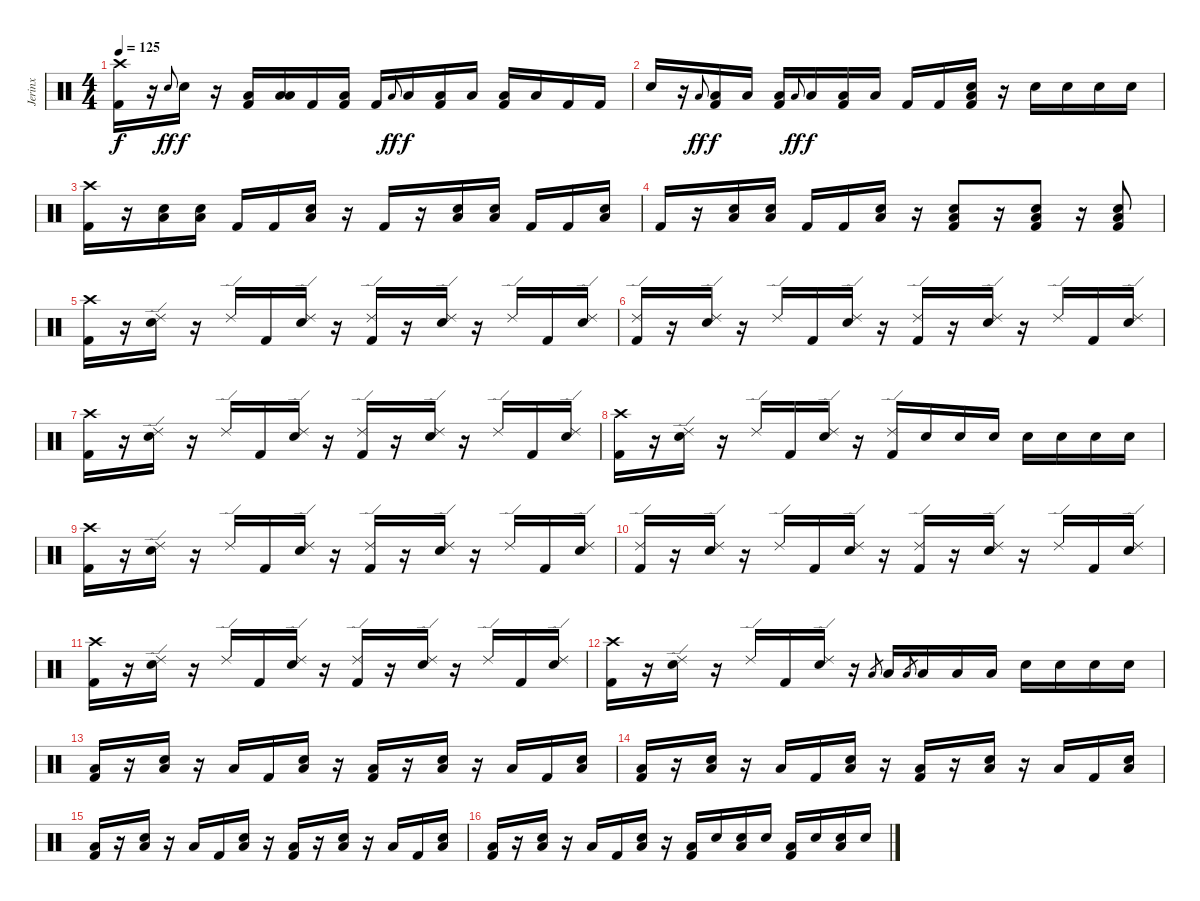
\track ("Jerinx" "Jerinx") {instrument percussion}
\staff {score}
\articulation defaults
\ts (4 4)
\tempo 125
\clef neutral
\ks c
("Kick (hit) 2" "Crash high (hit)").16{dy f} r.16 "Electric Snare (hit)".8{gr onbeat dy ff} "Electric Snare (hit)".16{dy f} r.16 ("Kick (hit) 2" "Low Floor Tom (hit)").16 ("Low Tom (hit)" "Low Floor Tom (hit)").16 "Kick (hit) 2".16 ("Kick (hit) 2" "Low Floor Tom (hit)").16 "Kick (hit) 2".16 "Low Tom (hit)".8{gr onbeat dy ff} "Low Tom (hit)".16{dy f} ("Kick (hit) 2" "Low Tom (hit)").16 "Low Tom (hit)".16 ("Kick (hit) 2" "Low Floor Tom (hit)").16 "Low Floor Tom (hit)".16 "Kick (hit) 2".16 "Kick (hit) 2".16 |
"Electric Snare (hit)".16 r.16 "Low Tom (hit)".8{gr onbeat dy ff} ("Kick (hit) 2" "Low Tom (hit)").16{dy f} "Low Tom (hit)".16 ("Kick (hit) 2" "Low Tom (hit)").16 "Low Floor Tom (hit)".8{gr onbeat dy ff} "Low Floor Tom (hit)".16{dy f} ("Kick (hit) 2" "Low Floor Tom (hit)").16 "Low Floor Tom (hit)".16 "Kick (hit) 2".16 "Kick (hit) 2".16 ("Kick (hit) 2" "Electric Snare (hit)" "Low Floor Tom (hit)").16 r.16 "Electric Snare (hit)".16 "Electric Snare (hit)".16 "Electric Snare (hit)".16 "Electric Snare (hit)".16 |
("Kick (hit) 2" "Crash high (hit)").16 r.16 ("Electric Snare (hit)" "Low Floor Tom (hit)").16 ("Electric Snare (hit)" "Low Floor Tom (hit)").16 "Kick (hit) 2".16 "Kick (hit) 2".16 ("Electric Snare (hit)" "Low Floor Tom (hit)").16 r.16 "Kick (hit) 2".16 r.16 ("Electric Snare (hit)" "Low Floor Tom (hit)").16 ("Electric Snare (hit)" "Low Floor Tom (hit)").16 "Kick (hit) 2".16 "Kick (hit) 2".16 ("Electric Snare (hit)" "Low Floor Tom (hit)").16 |
"Kick (hit) 2".16 r.16 ("Electric Snare (hit)" "Low Floor Tom (hit)").16 ("Electric Snare (hit)" "Low Floor Tom (hit)").16 "Kick (hit) 2".16 "Kick (hit) 2".16 ("Electric Snare (hit)" "Low Floor Tom (hit)").16 r.16 ("Kick (hit) 2" "Electric Snare (hit)" "Low Floor Tom (hit)").8 r.16 ("Kick (hit) 2" "Electric Snare (hit)" "Low Floor Tom (hit)").8 r.16 ("Kick (hit) 2" "Electric Snare (hit)" "Low Floor Tom (hit)").8 |
("Kick (hit) 2" "Crash high (hit)").16 r.16 ("Electric Snare (hit)" "Ride (edge) 2").16 r.16 "Ride (edge) 2".16 "Kick (hit) 2".16 ("Electric Snare (hit)" "Ride (edge) 2").16 r.16 ("Kick (hit) 2" "Ride (edge) 2").16 r.16 ("Electric Snare (hit)" "Ride (edge) 2").16 r.16 "Ride (edge) 2".16 "Kick (hit) 2".16 ("Electric Snare (hit)" "Ride (edge) 2").16 |
("Kick (hit) 2" "Ride (edge) 2").16 r.16 ("Electric Snare (hit)" "Ride (edge) 2").16 r.16 "Ride (edge) 2".16 "Kick (hit) 2".16 ("Electric Snare (hit)" "Ride (edge) 2").16 r.16 ("Kick (hit) 2" "Ride (edge) 2").16 r.16 ("Electric Snare (hit)" "Ride (edge) 2").16 r.16 "Ride (edge) 2".16 "Kick (hit) 2".16 ("Electric Snare (hit)" "Ride (edge) 2").16 |
("Kick (hit) 2" "Crash high (hit)").16 r.16 ("Electric Snare (hit)" "Ride (edge) 2").16 r.16 "Ride (edge) 2".16 "Kick (hit) 2".16 ("Electric Snare (hit)" "Ride (edge) 2").16 r.16 ("Kick (hit) 2" "Ride (edge) 2").16 r.16 ("Electric Snare (hit)" "Ride (edge) 2").16 r.16 "Ride (edge) 2".16 "Kick (hit) 2".16 ("Electric Snare (hit)" "Ride (edge) 2").16 |
("Kick (hit) 2" "Crash high (hit)").16 r.16 ("Electric Snare (hit)" "Ride (edge) 2").16 r.16 "Ride (edge) 2".16 "Kick (hit) 2".16 ("Electric Snare (hit)" "Ride (edge) 2").16 r.16 ("Kick (hit) 2" "Ride (edge) 2").16 "Electric Snare (hit)".16 "Electric Snare (hit)".16 "Electric Snare (hit)".16 "Electric Snare (hit)".16 "Electric Snare (hit)".16 "Electric Snare (hit)".16 "Electric Snare (hit)".16 |
("Kick (hit) 2" "Crash high (hit)").16 r.16 ("Electric Snare (hit)" "Ride (edge) 2").16 r.16 "Ride (edge) 2".16 "Kick (hit) 2".16 ("Electric Snare (hit)" "Ride (edge) 2").16 r.16 ("Kick (hit) 2" "Ride (edge) 2").16 r.16 ("Electric Snare (hit)" "Ride (edge) 2").16 r.16 "Ride (edge) 2".16 "Kick (hit) 2".16 ("Electric Snare (hit)" "Ride (edge) 2").16 |
("Kick (hit) 2" "Ride (edge) 2").16 r.16 ("Electric Snare (hit)" "Ride (edge) 2").16 r.16 "Ride (edge) 2".16 "Kick (hit) 2".16 ("Electric Snare (hit)" "Ride (edge) 2").16 r.16 ("Kick (hit) 2" "Ride (edge) 2").16 r.16 ("Electric Snare (hit)" "Ride (edge) 2").16 r.16 "Ride (edge) 2".16 "Kick (hit) 2".16 ("Electric Snare (hit)" "Ride (edge) 2").16 |
("Kick (hit) 2" "Crash high (hit)").16 r.16 ("Electric Snare (hit)" "Ride (edge) 2").16 r.16 "Ride (edge) 2".16 "Kick (hit) 2".16 ("Electric Snare (hit)" "Ride (edge) 2").16 r.16 ("Kick (hit) 2" "Ride (edge) 2").16 r.16 ("Electric Snare (hit)" "Ride (edge) 2").16 r.16 "Ride (edge) 2".16 "Kick (hit) 2".16 ("Electric Snare (hit)" "Ride (edge) 2").16 |
("Kick (hit) 2" "Crash high (hit)").16 r.16 ("Electric Snare (hit)" "Ride (edge) 2").16 r.16 "Ride (edge) 2".16 "Kick (hit) 2".16 ("Electric Snare (hit)" "Ride (edge) 2").16 r.16 "Low Tom (hit)".8{gr} "Low Tom (hit)".16 "Low Tom (hit)".8{gr} "Low Tom (hit)".16 "Low Floor Tom (hit)".16 "Low Floor Tom (hit)".16 "Electric Snare (hit)".16 "Electric Snare (hit)".16 "Electric Snare (hit)".16 "Electric Snare (hit)".16 |
("Kick (hit) 2" "Low Floor Tom (hit)").16 r.16 ("Electric Snare (hit)" "Low Floor Tom (hit)").16 r.16 "Low Floor Tom (hit)".16 "Kick (hit) 2".16 ("Electric Snare (hit)" "Low Floor Tom (hit)").16 r.16 ("Kick (hit) 2" "Low Floor Tom (hit)").16 r.16 ("Electric Snare (hit)" "Low Floor Tom (hit)").16 r.16 "Low Floor Tom (hit)".16 "Kick (hit) 2".16 ("Electric Snare (hit)" "Low Floor Tom (hit)").16 |
("Kick (hit) 2" "Low Floor Tom (hit)").16 r.16 ("Electric Snare (hit)" "Low Floor Tom (hit)").16 r.16 "Low Floor Tom (hit)".16 "Kick (hit) 2".16 ("Electric Snare (hit)" "Low Floor Tom (hit)").16 r.16 ("Kick (hit) 2" "Low Floor Tom (hit)").16 r.16 ("Electric Snare (hit)" "Low Floor Tom (hit)").16 r.16 "Low Floor Tom (hit)".16 "Kick (hit) 2".16 ("Electric Snare (hit)" "Low Floor Tom (hit)").16 |
("Kick (hit) 2" "Low Floor Tom (hit)").16 r.16 ("Electric Snare (hit)" "Low Floor Tom (hit)").16 r.16 "Low Floor Tom (hit)".16 "Kick (hit) 2".16 ("Electric Snare (hit)" "Low Floor Tom (hit)").16 r.16 ("Kick (hit) 2" "Low Floor Tom (hit)").16 r.16 ("Electric Snare (hit)" "Low Floor Tom (hit)").16 r.16 "Low Floor Tom (hit)".16 "Kick (hit) 2".16 ("Electric Snare (hit)" "Low Floor Tom (hit)").16 |
("Kick (hit) 2" "Low Floor Tom (hit)").16 r.16 ("Electric Snare (hit)" "Low Floor Tom (hit)").16 r.16 "Low Floor Tom (hit)".16 "Kick (hit) 2".16 ("Electric Snare (hit)" "Low Floor Tom (hit)").16 r.16 ("Kick (hit) 2" "Low Floor Tom (hit)").16 "Electric Snare (hit)".16 ("Electric Snare (hit)" "Low Floor Tom (hit)").16 "Electric Snare (hit)".16 ("Kick (hit) 2" "Low Floor Tom (hit)").16 "Electric Snare (hit)".16 ("Electric Snare (hit)" "Low Floor Tom (hit)").16 "Electric Snare (hit)".16
